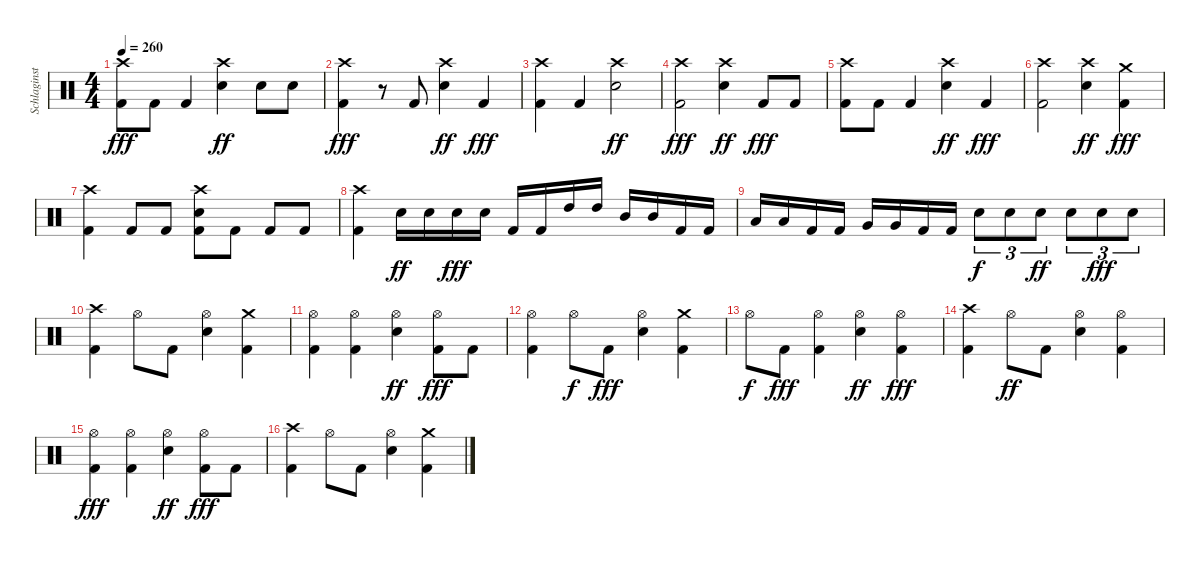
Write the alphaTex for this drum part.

\track ("Schlaginstrumente - Auswahl" "Schlaginst") {instrument percussion}
\staff {score}
\articulation defaults
\ts (4 4)
\tempo 260
\clef neutral
\ks c
("Crash high (hit)" "Kick (hit) 2").8{dy fff} "Kick (hit) 2".8 "Kick (hit) 2".4 ("Crash high (hit)" "Snare (hit) 2").4{dy ff} "Snare (hit) 2".8 "Snare (hit) 2".8 |
("Crash high (hit)" "Kick (hit) 2").4{dy fff} r.8 "Kick (hit) 2".8 ("Crash high (hit)" "Snare (hit) 2").4{dy ff} "Kick (hit) 2".4{dy fff} |
("Crash high (hit)" "Kick (hit) 2").4 "Kick (hit) 2".4 ("Crash high (hit)" "Snare (hit) 2").2{dy ff} |
("Crash high (hit)" "Kick (hit) 2").2{dy fff} ("Crash high (hit)" "Snare (hit) 2").4{dy ff} "Kick (hit) 2".8{dy fff} "Kick (hit) 2".8 |
("Crash high (hit)" "Kick (hit) 2").8 "Kick (hit) 2".8 "Kick (hit) 2".4 ("Crash high (hit)" "Snare (hit) 2").4{dy ff} "Kick (hit) 2".4{dy fff} |
("Crash high (hit)" "Kick (hit) 2").2 ("Crash high (hit)" "Snare (hit) 2").4{dy ff} ("Crash medium (hit)" "Kick (hit) 2").4{dy fff} |
("Crash high (hit)" "Kick (hit) 2").4 "Kick (hit) 2".8 "Kick (hit) 2".8 ("Crash high (hit)" "Snare (hit) 2" "Kick (hit) 2").8 "Kick (hit) 2".8 "Kick (hit) 2".8 "Kick (hit) 2".8 |
("Crash high (hit)" "Kick (hit) 2").4 "Snare (hit) 2".16{dy ff} "Snare (hit) 2".16 "Snare (hit) 2".16{dy fff} "Snare (hit) 2".16 "Kick (hit) 2".16 "Kick (hit) 2".16 "High Tom (hit)".16 "High Tom (hit)".16 "Mid Tom (hit)".16 "Mid Tom (hit)".16 "Kick (hit) 2".16 "Kick (hit) 2".16 |
"Low Tom (hit)".16 "Low Tom (hit)".16 "Kick (hit) 2".16 "Kick (hit) 2".16 "Very Low Tom (hit)".16 "Very Low Tom (hit)".16 "Kick (hit) 2".16 "Kick (hit) 2".16 "Snare (hit) 2".8{tu (3 2) dy f} "Snare (hit) 2".8{tu (3 2)} "Snare (hit) 2".8{tu (3 2) dy ff} "Snare (hit) 2".8{tu (3 2)} "Snare (hit) 2".8{tu (3 2) dy fff} "Snare (hit) 2".8{tu (3 2)} |
("Crash high (hit)" "Kick (hit) 2").4 "Hi-Hat (open)".8 "Kick (hit) 2".8 ("Hi-Hat (open)" "Snare (hit) 2").4 ("Crash medium (hit)" "Kick (hit) 2").4 |
("Hi-Hat (open)" "Kick (hit) 2").4 ("Hi-Hat (open)" "Kick (hit) 2").4 ("Hi-Hat (open)" "Snare (hit) 2").4{dy ff} ("Hi-Hat (open)" "Kick (hit) 2").8{dy fff} "Kick (hit) 2".8 |
("Hi-Hat (open)" "Kick (hit) 2").4 "Hi-Hat (open)".8{dy f} "Kick (hit) 2".8{dy fff} ("Hi-Hat (open)" "Snare (hit) 2").4 ("Crash medium (hit)" "Kick (hit) 2").4 |
"Hi-Hat (open)".8{dy f} "Kick (hit) 2".8{dy fff} ("Hi-Hat (open)" "Kick (hit) 2").4 ("Hi-Hat (open)" "Snare (hit) 2").4{dy ff} ("Hi-Hat (open)" "Kick (hit) 2").4{dy fff} |
("Crash high (hit)" "Kick (hit) 2").4 "Hi-Hat (open)".8{dy ff} "Kick (hit) 2".8 ("Hi-Hat (open)" "Snare (hit) 2").4 ("Hi-Hat (open)" "Kick (hit) 2").4 |
("Hi-Hat (open)" "Kick (hit) 2").4{dy fff} ("Hi-Hat (open)" "Kick (hit) 2").4 ("Hi-Hat (open)" "Snare (hit) 2").4{dy ff} ("Hi-Hat (open)" "Kick (hit) 2").8{dy fff} "Kick (hit) 2".8 |
("Crash high (hit)" "Kick (hit) 2").4 "Hi-Hat (open)".8 "Kick (hit) 2".8 ("Hi-Hat (open)" "Snare (hit) 2").4 ("Crash medium (hit)" "Kick (hit) 2").4
